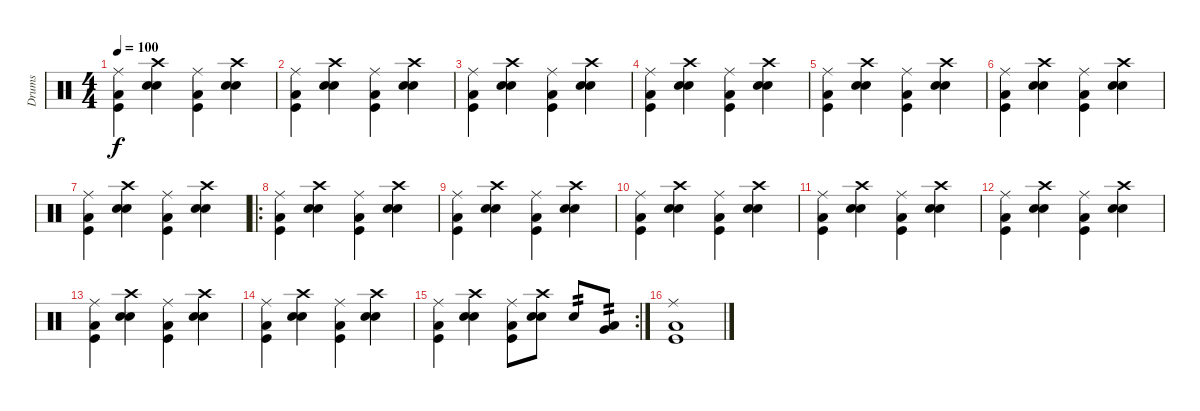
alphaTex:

\track ("Drums" "Drums") {instrument percussion}
\staff {score}
\articulation defaults
\ts (4 4)
\tempo 100
\clef neutral
\ks c
("Ride (middle)" "Kick (hit)" "Low Floor Tom (hit)").4{dy f} ("Crash high (hit)" "Snare (hit) 2" "Electric Snare (hit)").4 ("Ride (middle)" "Kick (hit)" "Low Floor Tom (hit)").4 ("Crash high (hit)" "Snare (hit) 2" "Electric Snare (hit)").4 |
("Ride (middle)" "Kick (hit)" "Low Floor Tom (hit)").4 ("Crash high (hit)" "Snare (hit) 2" "Electric Snare (hit)").4 ("Ride (middle)" "Kick (hit)" "Low Floor Tom (hit)").4 ("Crash high (hit)" "Snare (hit) 2" "Electric Snare (hit)").4 |
("Ride (middle)" "Kick (hit)" "Low Floor Tom (hit)").4 ("Crash high (hit)" "Snare (hit) 2" "Electric Snare (hit)").4 ("Ride (middle)" "Kick (hit)" "Low Floor Tom (hit)").4 ("Crash high (hit)" "Snare (hit) 2" "Electric Snare (hit)").4 |
("Ride (middle)" "Kick (hit)" "Low Floor Tom (hit)").4 ("Crash high (hit)" "Snare (hit) 2" "Electric Snare (hit)").4 ("Ride (middle)" "Kick (hit)" "Low Floor Tom (hit)").4 ("Crash high (hit)" "Snare (hit) 2" "Electric Snare (hit)").4 |
("Ride (middle)" "Kick (hit)" "Low Floor Tom (hit)").4 ("Crash high (hit)" "Snare (hit) 2" "Electric Snare (hit)").4 ("Ride (middle)" "Kick (hit)" "Low Floor Tom (hit)").4 ("Crash high (hit)" "Snare (hit) 2" "Electric Snare (hit)").4 |
("Ride (middle)" "Kick (hit)" "Low Floor Tom (hit)").4 ("Crash high (hit)" "Snare (hit) 2" "Electric Snare (hit)").4 ("Ride (middle)" "Kick (hit)" "Low Floor Tom (hit)").4 ("Crash high (hit)" "Snare (hit) 2" "Electric Snare (hit)").4 |
("Ride (middle)" "Kick (hit)" "Low Floor Tom (hit)").4 ("Crash high (hit)" "Snare (hit) 2" "Electric Snare (hit)").4 ("Ride (middle)" "Kick (hit)" "Low Floor Tom (hit)").4 ("Crash high (hit)" "Snare (hit) 2" "Electric Snare (hit)").4 |
\ro
("Ride (middle)" "Kick (hit)" "Low Floor Tom (hit)").4 ("Crash high (hit)" "Snare (hit) 2" "Electric Snare (hit)").4 ("Ride (middle)" "Kick (hit)" "Low Floor Tom (hit)").4 ("Crash high (hit)" "Snare (hit) 2" "Electric Snare (hit)").4 |
("Ride (middle)" "Kick (hit)" "Low Floor Tom (hit)").4 ("Crash high (hit)" "Snare (hit) 2" "Electric Snare (hit)").4 ("Ride (middle)" "Kick (hit)" "Low Floor Tom (hit)").4 ("Crash high (hit)" "Snare (hit) 2" "Electric Snare (hit)").4 |
("Ride (middle)" "Kick (hit)" "Low Floor Tom (hit)").4 ("Crash high (hit)" "Snare (hit) 2" "Electric Snare (hit)").4 ("Ride (middle)" "Kick (hit)" "Low Floor Tom (hit)").4 ("Crash high (hit)" "Snare (hit) 2" "Electric Snare (hit)").4 |
("Ride (middle)" "Kick (hit)" "Low Floor Tom (hit)").4 ("Crash high (hit)" "Snare (hit) 2" "Electric Snare (hit)").4 ("Ride (middle)" "Kick (hit)" "Low Floor Tom (hit)").4 ("Crash high (hit)" "Snare (hit) 2" "Electric Snare (hit)").4 |
("Ride (middle)" "Kick (hit)" "Low Floor Tom (hit)").4 ("Crash high (hit)" "Snare (hit) 2" "Electric Snare (hit)").4 ("Ride (middle)" "Kick (hit)" "Low Floor Tom (hit)").4 ("Crash high (hit)" "Snare (hit) 2" "Electric Snare (hit)").4 |
("Ride (middle)" "Kick (hit)" "Low Floor Tom (hit)").4 ("Crash high (hit)" "Snare (hit) 2" "Electric Snare (hit)").4 ("Ride (middle)" "Kick (hit)" "Low Floor Tom (hit)").4 ("Crash high (hit)" "Snare (hit) 2" "Electric Snare (hit)").4 |
("Ride (middle)" "Kick (hit)" "Low Floor Tom (hit)").4 ("Crash high (hit)" "Snare (hit) 2" "Electric Snare (hit)").4 ("Ride (middle)" "Kick (hit)" "Low Floor Tom (hit)").4 ("Crash high (hit)" "Snare (hit) 2" "Electric Snare (hit)").4 |
\rc 2
("Ride (middle)" "Kick (hit)" "Low Floor Tom (hit)").4 ("Crash high (hit)" "Snare (hit) 2" "Electric Snare (hit)").4 ("Ride (middle)" "Kick (hit)" "Low Floor Tom (hit)").8 ("Crash high (hit)" "Snare (hit) 2" "Electric Snare (hit)").8 "Snare (hit) 2".8{tp 2} ("Low Floor Tom (hit)" "Very Low Tom (hit)").8{tp 2} |
("Ride (middle)" "Kick (hit)" "Low Floor Tom (hit)").1
